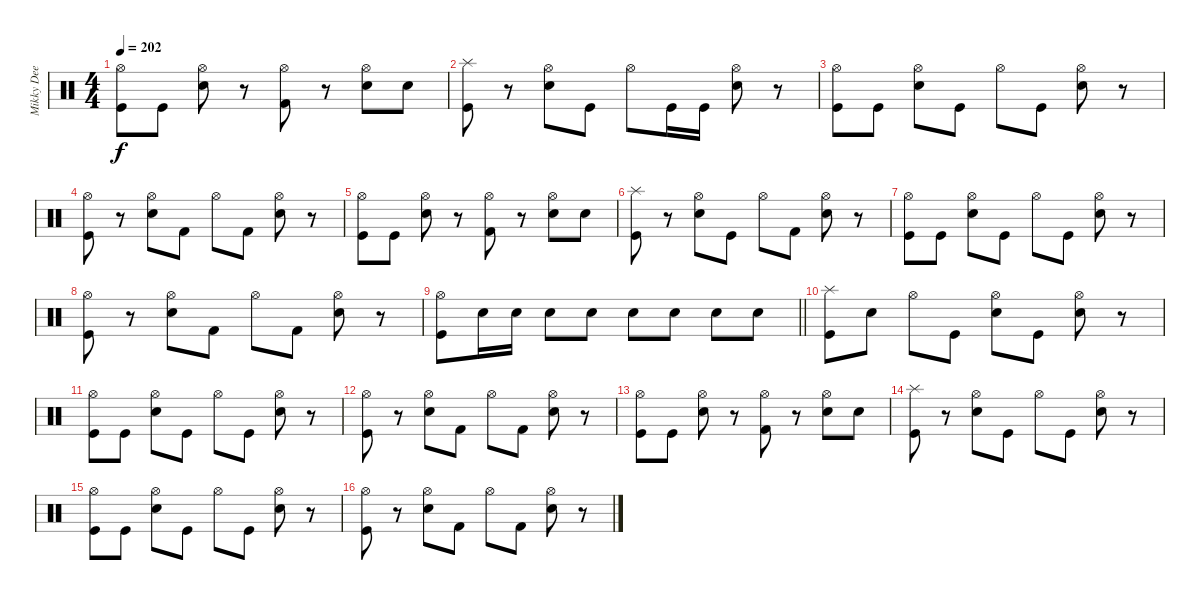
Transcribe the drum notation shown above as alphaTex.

\track ("Mikky Dee" "Mikky Dee") {instrument percussion}
\staff {score}
\articulation defaults
\ts (4 4)
\tempo 202
\clef neutral
\ks c
("Hi-Hat (open)" "Kick (hit)").8{dy f} "Kick (hit)".8 ("Hi-Hat (open)" "Electric Snare (hit)").8 r.8 ("Hi-Hat (open)" "Kick (hit) 2").8 r.8 ("Hi-Hat (open)" "Electric Snare (hit)").8 "Electric Snare (hit)".8 |
("Splash (hit)" "Kick (hit)").8 r.8 ("Hi-Hat (open)" "Electric Snare (hit)").8 "Kick (hit)".8 "Hi-Hat (open)".8 "Kick (hit)".16 "Kick (hit)".16 ("Hi-Hat (open)" "Electric Snare (hit)").8 r.8 |
("Hi-Hat (open)" "Kick (hit)").8 "Kick (hit)".8 ("Hi-Hat (open)" "Electric Snare (hit)").8 "Kick (hit)".8 "Hi-Hat (open)".8 "Kick (hit)".8 ("Hi-Hat (open)" "Electric Snare (hit)").8 r.8 |
("Hi-Hat (open)" "Kick (hit)").8 r.8 ("Hi-Hat (open)" "Electric Snare (hit)").8 "Kick (hit) 2".8 "Hi-Hat (open)".8 "Kick (hit) 2".8 ("Hi-Hat (open)" "Electric Snare (hit)").8 r.8 |
("Hi-Hat (open)" "Kick (hit)").8 "Kick (hit)".8 ("Hi-Hat (open)" "Electric Snare (hit)").8 r.8 ("Hi-Hat (open)" "Kick (hit) 2").8 r.8 ("Hi-Hat (open)" "Electric Snare (hit)").8 "Electric Snare (hit)".8 |
("Splash (hit)" "Kick (hit)").8 r.8 ("Hi-Hat (open)" "Electric Snare (hit)").8 "Kick (hit)".8 "Hi-Hat (open)".8 "Kick (hit) 2".8 ("Hi-Hat (open)" "Electric Snare (hit)").8 r.8 |
("Hi-Hat (open)" "Kick (hit)").8 "Kick (hit)".8 ("Hi-Hat (open)" "Electric Snare (hit)").8 "Kick (hit)".8 "Hi-Hat (open)".8 "Kick (hit)".8 ("Hi-Hat (open)" "Electric Snare (hit)").8 r.8 |
("Hi-Hat (open)" "Kick (hit)").8 r.8 ("Hi-Hat (open)" "Electric Snare (hit)").8 "Kick (hit) 2".8 "Hi-Hat (open)".8 "Kick (hit) 2".8 ("Hi-Hat (open)" "Electric Snare (hit)").8 r.8 |
\barLineRight lightlight
("Hi-Hat (open)" "Kick (hit)").8 "Electric Snare (hit)".16 "Electric Snare (hit)".16 "Electric Snare (hit)".8 "Electric Snare (hit)".8 "Electric Snare (hit)".8 "Electric Snare (hit)".8 "Electric Snare (hit)".8 "Electric Snare (hit)".8 |
("Splash (hit)" "Kick (hit)").8 "Electric Snare (hit)".8 "Hi-Hat (open)".8 "Kick (hit)".8 ("Hi-Hat (open)" "Electric Snare (hit)").8 "Kick (hit)".8 ("Hi-Hat (open)" "Electric Snare (hit)").8 r.8 |
("Hi-Hat (open)" "Kick (hit)").8 "Kick (hit)".8 ("Hi-Hat (open)" "Electric Snare (hit)").8 "Kick (hit)".8 "Hi-Hat (open)".8 "Kick (hit)".8 ("Hi-Hat (open)" "Electric Snare (hit)").8 r.8 |
("Hi-Hat (open)" "Kick (hit)").8 r.8 ("Hi-Hat (open)" "Electric Snare (hit)").8 "Kick (hit) 2".8 "Hi-Hat (open)".8 "Kick (hit) 2".8 ("Hi-Hat (open)" "Electric Snare (hit)").8 r.8 |
("Hi-Hat (open)" "Kick (hit)").8 "Kick (hit)".8 ("Hi-Hat (open)" "Electric Snare (hit)").8 r.8 ("Hi-Hat (open)" "Kick (hit) 2").8 r.8 ("Hi-Hat (open)" "Electric Snare (hit)").8 "Electric Snare (hit)".8 |
("Splash (hit)" "Kick (hit)").8 r.8 ("Hi-Hat (open)" "Electric Snare (hit)").8 "Kick (hit)".8 "Hi-Hat (open)".8 "Kick (hit)".8 ("Hi-Hat (open)" "Electric Snare (hit)").8 r.8 |
("Hi-Hat (open)" "Kick (hit)").8 "Kick (hit)".8 ("Hi-Hat (open)" "Electric Snare (hit)").8 "Kick (hit)".8 "Hi-Hat (open)".8 "Kick (hit)".8 ("Hi-Hat (open)" "Electric Snare (hit)").8 r.8 |
("Hi-Hat (open)" "Kick (hit)").8 r.8 ("Hi-Hat (open)" "Electric Snare (hit)").8 "Kick (hit) 2".8 "Hi-Hat (open)".8 "Kick (hit) 2".8 ("Hi-Hat (open)" "Electric Snare (hit)").8 r.8
